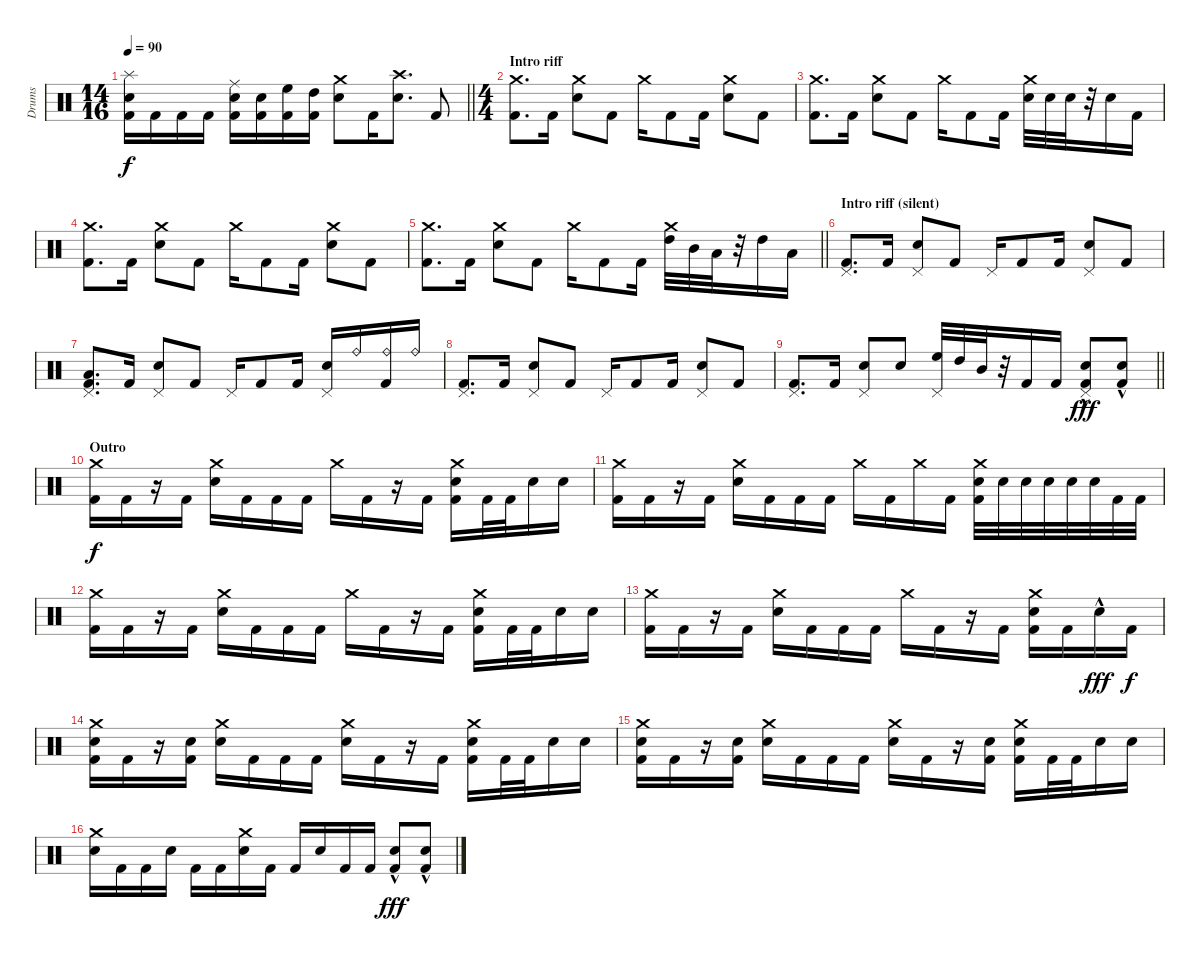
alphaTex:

\track ("Drums" "Drums") {instrument percussion}
\staff {score}
\articulation defaults
\ts (14 16)
\tempo 90
\clef neutral
\barLineRight lightlight
\ks c
("Splash (hit)" "Electric Snare (hit)" "Kick (hit) 2").16{dy f} "Kick (hit) 2".16 "Kick (hit) 2".16 "Kick (hit) 2".16 ("Ride (middle)" "Electric Snare (hit)" "Kick (hit) 2").16 ("Electric Snare (hit)" "Kick (hit) 2").16 ("High Floor Tom (hit)" "Kick (hit) 2").16 ("High Tom (hit)" "Kick (hit) 2").16 ("Crash medium (hit)" "Electric Snare (hit)").8 "Kick (hit) 2".16 ("Crash high (hit)" "Electric Snare (hit)").8{d} "Kick (hit) 2".8 |
\ts (4 4)
\section ("" "Intro riff")
("Crash medium (hit)" "Kick (hit) 2").8{d} "Kick (hit) 2".16 ("Crash medium (hit)" "Electric Snare (hit)").8 "Kick (hit) 2".8 "Crash medium (hit)".16 "Kick (hit) 2".8 "Kick (hit) 2".16 ("Crash medium (hit)" "Electric Snare (hit)").8 "Kick (hit) 2".8 |
("Crash medium (hit)" "Kick (hit) 2").8{d} "Kick (hit) 2".16 ("Crash medium (hit)" "Electric Snare (hit)").8 "Kick (hit) 2".8 "Crash medium (hit)".16 "Kick (hit) 2".8 "Kick (hit) 2".16 ("Crash medium (hit)" "Electric Snare (hit)").32 "Electric Snare (hit)".32 "Electric Snare (hit)".32 r.32 "Electric Snare (hit)".16 "Kick (hit) 2".16 |
("Crash medium (hit)" "Kick (hit) 2").8{d} "Kick (hit) 2".16 ("Crash medium (hit)" "Electric Snare (hit)").8 "Kick (hit) 2".8 "Crash medium (hit)".16 "Kick (hit) 2".8 "Kick (hit) 2".16 ("Crash medium (hit)" "Electric Snare (hit)").8 "Kick (hit) 2".8 |
\barLineRight lightlight
("Crash medium (hit)" "Kick (hit) 2").8{d} "Kick (hit) 2".16 ("Crash medium (hit)" "Electric Snare (hit)").8 "Kick (hit) 2".8 "Crash medium (hit)".16 "Kick (hit) 2".8 "Kick (hit) 2".16 ("Crash medium (hit)" "High Tom (hit)").32 "Mid Tom (hit)".32 "Low Tom (hit)".32 r.32 "High Tom (hit)".16 "Low Tom (hit)".16 |
\section ("" "Intro riff (silent)")
("Pedal Hi-Hat (hit)" "Kick (hit) 2").8{d} "Kick (hit) 2".16 ("Pedal Hi-Hat (hit)" "Electric Snare (hit)").8 "Kick (hit) 2".8 "Pedal Hi-Hat (hit)".16 "Kick (hit) 2".8 "Kick (hit) 2".16 ("Pedal Hi-Hat (hit)" "Electric Snare (hit)").8 "Kick (hit) 2".8 |
("Pedal Hi-Hat (hit)" "Low Floor Tom (hit)" "Kick (hit) 2").8{d} "Kick (hit) 2".16 ("Pedal Hi-Hat (hit)" "Electric Snare (hit)").8 "Kick (hit) 2".8 "Pedal Hi-Hat (hit)".16 "Kick (hit) 2".8 "Kick (hit) 2".16 ("Pedal Hi-Hat (hit)" "Electric Snare (hit)").16 "Ride (bell)".16 ("Ride (bell)" "Kick (hit) 2").16 "Ride (bell)".16 |
("Pedal Hi-Hat (hit)" "Kick (hit) 2").8{d} "Kick (hit) 2".16 ("Pedal Hi-Hat (hit)" "Electric Snare (hit)").8 "Kick (hit) 2".8 "Pedal Hi-Hat (hit)".16 "Kick (hit) 2".8 "Kick (hit) 2".16 ("Pedal Hi-Hat (hit)" "Electric Snare (hit)").8 "Kick (hit) 2".8 |
\barLineRight lightlight
("Pedal Hi-Hat (hit)" "Kick (hit) 2").8{d} "Kick (hit) 2".16 ("Pedal Hi-Hat (hit)" "Electric Snare (hit)").8 "Electric Snare (hit)".8 ("Pedal Hi-Hat (hit)" "High Floor Tom (hit)").32 "High Tom (hit)".32 "Mid Tom (hit)".32 r.32 "Kick (hit) 2".16 "Kick (hit) 2".16 ("Pedal Hi-Hat (hit)" "Electric Snare (hit)"{hac} "Kick (hit) 2").8{dy fff} ("Electric Snare (hit)"{hac} "Kick (hit) 2").8 |
\section ("" "Outro")
("Crash medium (hit)" "Kick (hit) 2").16{dy f} "Kick (hit) 2".16 r.16 "Kick (hit) 2".16 ("Crash medium (hit)" "Electric Snare (hit)").16 "Kick (hit) 2".16 "Kick (hit) 2".16 "Kick (hit) 2".16 "Crash medium (hit)".16 "Kick (hit) 2".16 r.16 "Kick (hit) 2".16 ("Crash medium (hit)" "Electric Snare (hit)" "Kick (hit) 2").16 "Kick (hit) 2".32 "Kick (hit) 2".32 "Electric Snare (hit)".16 "Electric Snare (hit)".16 |
("Crash medium (hit)" "Kick (hit) 2").16 "Kick (hit) 2".16 r.16 "Kick (hit) 2".16 ("Crash medium (hit)" "Electric Snare (hit)").16 "Kick (hit) 2".16 "Kick (hit) 2".16 "Kick (hit) 2".16 "Crash medium (hit)".16 "Kick (hit) 2".16 "Crash medium (hit)".16 "Kick (hit) 2".16 ("Crash medium (hit)" "Electric Snare (hit)" "Kick (hit) 2").32 "Electric Snare (hit)".32 "Electric Snare (hit)".32 "Electric Snare (hit)".32 "Electric Snare (hit)".32 "Electric Snare (hit)".32 "Kick (hit) 2".32 "Kick (hit) 2".32 |
("Crash medium (hit)" "Kick (hit) 2").16 "Kick (hit) 2".16 r.16 "Kick (hit) 2".16 ("Crash medium (hit)" "Electric Snare (hit)").16 "Kick (hit) 2".16 "Kick (hit) 2".16 "Kick (hit) 2".16 "Crash medium (hit)".16 "Kick (hit) 2".16 r.16 "Kick (hit) 2".16 ("Crash medium (hit)" "Electric Snare (hit)" "Kick (hit) 2").16 "Kick (hit) 2".32 "Kick (hit) 2".32 "Electric Snare (hit)".16 "Electric Snare (hit)".16 |
("Crash medium (hit)" "Kick (hit) 2").16 "Kick (hit) 2".16 r.16 "Kick (hit) 2".16 ("Crash medium (hit)" "Electric Snare (hit)").16 "Kick (hit) 2".16 "Kick (hit) 2".16 "Kick (hit) 2".16 "Crash medium (hit)".16 "Kick (hit) 2".16 r.16 "Kick (hit) 2".16 ("Crash medium (hit)" "Electric Snare (hit)" "Kick (hit) 2").16 "Kick (hit) 2".16 "Electric Snare (hit)"{hac}.16{dy fff} "Kick (hit) 2".16{dy f} |
("Crash medium (hit)" "Electric Snare (hit)" "Kick (hit) 2").16 "Kick (hit) 2".16 r.16 ("Electric Snare (hit)" "Kick (hit) 2").16 ("Crash medium (hit)" "Electric Snare (hit)").16 "Kick (hit) 2".16 "Kick (hit) 2".16 "Kick (hit) 2".16 ("Crash medium (hit)" "Electric Snare (hit)").16 "Kick (hit) 2".16 r.16 "Kick (hit) 2".16 ("Crash medium (hit)" "Electric Snare (hit)" "Kick (hit) 2").16 "Kick (hit) 2".32 "Kick (hit) 2".32 "Electric Snare (hit)".16 "Electric Snare (hit)".16 |
("Crash medium (hit)" "Electric Snare (hit)" "Kick (hit) 2").16 "Kick (hit) 2".16 r.16 ("Electric Snare (hit)" "Kick (hit) 2").16 ("Crash medium (hit)" "Electric Snare (hit)").16 "Kick (hit) 2".16 "Kick (hit) 2".16 "Kick (hit) 2".16 ("Crash medium (hit)" "Electric Snare (hit)").16 "Kick (hit) 2".16 r.16 ("Electric Snare (hit)" "Kick (hit) 2").16 ("Crash medium (hit)" "Electric Snare (hit)" "Kick (hit) 2").16 "Kick (hit) 2".32 "Kick (hit) 2".32 "Electric Snare (hit)".16 "Electric Snare (hit)".16 |
("Crash medium (hit)" "Electric Snare (hit)").16 "Kick (hit) 2".16 "Kick (hit) 2".16 "Electric Snare (hit)".16 "Kick (hit) 2".16 "Kick (hit) 2".16 ("Crash medium (hit)" "Electric Snare (hit)").16 "Kick (hit) 2".16 "Kick (hit) 2".16 "Electric Snare (hit)".16 "Kick (hit) 2".16 "Kick (hit) 2".16 ("Electric Snare (hit)"{hac} "Kick (hit) 2").8{dy fff} ("Electric Snare (hit)"{hac} "Kick (hit) 2").8
